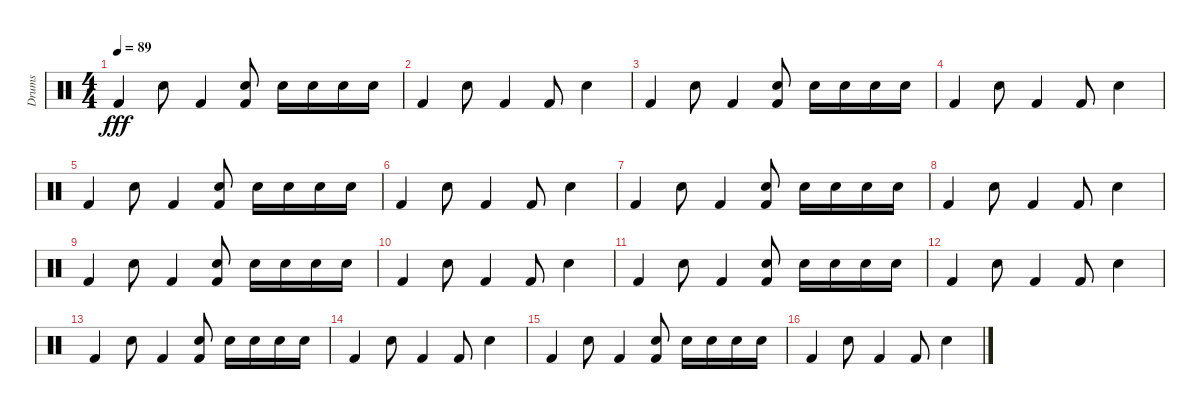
\track ("Drums" "Drums") {instrument percussion}
\staff {score}
\articulation defaults
\ts (4 4)
\tempo 89
\clef neutral
\ks c "Kick (hit) 2".4{dy fff} "Electric Snare (hit)".8 "Kick (hit) 2".4
("Electric Snare (hit)" "Kick (hit) 2").8 "Electric Snare (hit)".16 "Electric Snare (hit)".16 "Electric Snare (hit)".16 "Electric Snare (hit)".16 |
"Kick (hit) 2".4 "Electric Snare (hit)".8 "Kick (hit) 2".4 "Kick (hit) 2".8 "Electric Snare (hit)".4 |
"Kick (hit) 2".4 "Electric Snare (hit)".8 "Kick (hit) 2".4 ("Electric Snare (hit)" "Kick (hit) 2").8 "Electric Snare (hit)".16 "Electric Snare (hit)".16 "Electric Snare (hit)".16 "Electric Snare (hit)".16 |
"Kick (hit) 2".4 "Electric Snare (hit)".8 "Kick (hit) 2".4 "Kick (hit) 2".8 "Electric Snare (hit)".4 |
"Kick (hit) 2".4 "Electric Snare (hit)".8 "Kick (hit) 2".4 ("Electric Snare (hit)" "Kick (hit) 2").8 "Electric Snare (hit)".16 "Electric Snare (hit)".16 "Electric Snare (hit)".16 "Electric Snare (hit)".16 |
"Kick (hit) 2".4 "Electric Snare (hit)".8 "Kick (hit) 2".4 "Kick (hit) 2".8 "Electric Snare (hit)".4 |
"Kick (hit) 2".4 "Electric Snare (hit)".8 "Kick (hit) 2".4 ("Electric Snare (hit)" "Kick (hit) 2").8 "Electric Snare (hit)".16 "Electric Snare (hit)".16 "Electric Snare (hit)".16 "Electric Snare (hit)".16 |
"Kick (hit) 2".4 "Electric Snare (hit)".8 "Kick (hit) 2".4 "Kick (hit) 2".8 "Electric Snare (hit)".4 |
"Kick (hit) 2".4 "Electric Snare (hit)".8 "Kick (hit) 2".4 ("Electric Snare (hit)" "Kick (hit) 2").8 "Electric Snare (hit)".16 "Electric Snare (hit)".16 "Electric Snare (hit)".16 "Electric Snare (hit)".16 |
"Kick (hit) 2".4 "Electric Snare (hit)".8 "Kick (hit) 2".4 "Kick (hit) 2".8 "Electric Snare (hit)".4 |
"Kick (hit) 2".4 "Electric Snare (hit)".8 "Kick (hit) 2".4 ("Electric Snare (hit)" "Kick (hit) 2").8 "Electric Snare (hit)".16 "Electric Snare (hit)".16 "Electric Snare (hit)".16 "Electric Snare (hit)".16 |
"Kick (hit) 2".4 "Electric Snare (hit)".8 "Kick (hit) 2".4 "Kick (hit) 2".8 "Electric Snare (hit)".4 |
"Kick (hit) 2".4 "Electric Snare (hit)".8 "Kick (hit) 2".4 ("Electric Snare (hit)" "Kick (hit) 2").8 "Electric Snare (hit)".16 "Electric Snare (hit)".16 "Electric Snare (hit)".16 "Electric Snare (hit)".16 |
"Kick (hit) 2".4 "Electric Snare (hit)".8 "Kick (hit) 2".4 "Kick (hit) 2".8 "Electric Snare (hit)".4 |
"Kick (hit) 2".4 "Electric Snare (hit)".8 "Kick (hit) 2".4 ("Electric Snare (hit)" "Kick (hit) 2").8 "Electric Snare (hit)".16 "Electric Snare (hit)".16 "Electric Snare (hit)".16 "Electric Snare (hit)".16 |
"Kick (hit) 2".4 "Electric Snare (hit)".8 "Kick (hit) 2".4 "Kick (hit) 2".8 "Electric Snare (hit)".4
